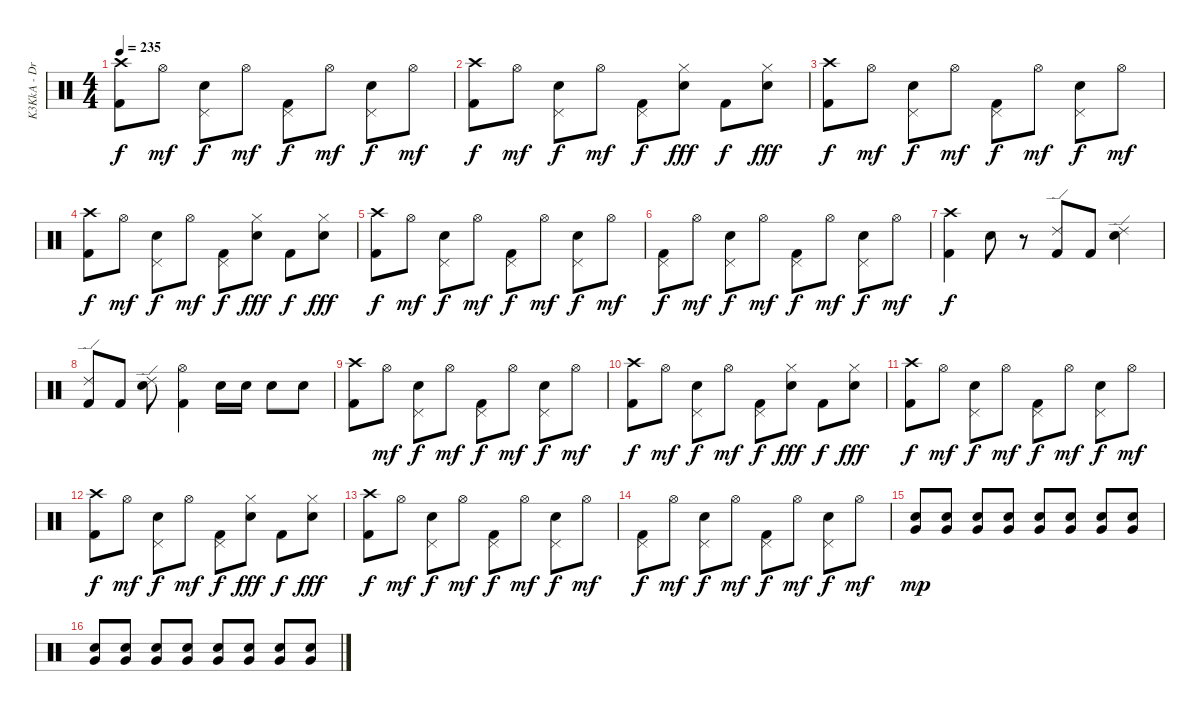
\track ("K3KkA - Drums" "K3KkA - Dr") {instrument percussion}
\staff {score}
\articulation defaults
\ts (4 4)
\tempo 235
\clef neutral
\ks c
("Crash high (hit)" "Kick (hit) 2").8{dy f} "Hi-Hat (open)".8{dy mf} ("Pedal Hi-Hat (hit)" "Snare (hit) 2").8{dy f} "Hi-Hat (open)".8{dy mf} ("Pedal Hi-Hat (hit)" "Kick (hit) 2").8{dy f} "Hi-Hat (open)".8{dy mf} ("Pedal Hi-Hat (hit)" "Snare (hit) 2").8{dy f} "Hi-Hat (open)".8{dy mf} |
("Crash high (hit)" "Kick (hit) 2").8{dy f} "Hi-Hat (open)".8{dy mf} ("Pedal Hi-Hat (hit)" "Snare (hit) 2").8{dy f} "Hi-Hat (open)".8{dy mf} ("Pedal Hi-Hat (hit)" "Kick (hit) 2").8{dy f} ("Hi-Hat (closed)" "Snare (hit) 2").8{dy fff} "Kick (hit) 2".8{dy f} ("Hi-Hat (closed)" "Snare (hit) 2").8{dy fff} |
("Crash high (hit)" "Kick (hit) 2").8{dy f} "Hi-Hat (open)".8{dy mf} ("Pedal Hi-Hat (hit)" "Snare (hit) 2").8{dy f} "Hi-Hat (open)".8{dy mf} ("Pedal Hi-Hat (hit)" "Kick (hit) 2").8{dy f} "Hi-Hat (open)".8{dy mf} ("Pedal Hi-Hat (hit)" "Snare (hit) 2").8{dy f} "Hi-Hat (open)".8{dy mf} |
("Crash high (hit)" "Kick (hit) 2").8{dy f} "Hi-Hat (open)".8{dy mf} ("Pedal Hi-Hat (hit)" "Snare (hit) 2").8{dy f} "Hi-Hat (open)".8{dy mf} ("Pedal Hi-Hat (hit)" "Kick (hit) 2").8{dy f} ("Hi-Hat (closed)" "Snare (hit) 2").8{dy fff} "Kick (hit) 2".8{dy f} ("Hi-Hat (closed)" "Snare (hit) 2").8{dy fff} |
("Crash high (hit)" "Kick (hit) 2").8{dy f} "Hi-Hat (open)".8{dy mf} ("Pedal Hi-Hat (hit)" "Snare (hit) 2").8{dy f} "Hi-Hat (open)".8{dy mf} ("Pedal Hi-Hat (hit)" "Kick (hit) 2").8{dy f} "Hi-Hat (open)".8{dy mf} ("Pedal Hi-Hat (hit)" "Snare (hit) 2").8{dy f} "Hi-Hat (open)".8{dy mf} |
("Pedal Hi-Hat (hit)" "Kick (hit) 2").8{dy f} "Hi-Hat (open)".8{dy mf} ("Pedal Hi-Hat (hit)" "Snare (hit) 2").8{dy f} "Hi-Hat (open)".8{dy mf} ("Pedal Hi-Hat (hit)" "Kick (hit) 2").8{dy f} "Hi-Hat (open)".8{dy mf} ("Pedal Hi-Hat (hit)" "Snare (hit) 2").8{dy f} "Hi-Hat (open)".8{dy mf} |
("Crash high (hit)" "Kick (hit) 2").4{dy f volume 13} "Electric Snare (hit)".8 r.8 ("Ride (edge) 2" "Kick (hit) 2").8 "Kick (hit) 2".8 ("Ride (edge) 2" "Electric Snare (hit)").4 |
("Ride (edge) 2" "Kick (hit) 2").8 "Kick (hit) 2".8 ("Ride (edge) 2" "Electric Snare (hit)").8 ("Hi-Hat (open)" "Kick (hit) 2").4 "Snare (hit) 2".16 "Snare (hit) 2".16 "Snare (hit) 2".8 "Snare (hit) 2".8 |
("Crash high (hit)" "Kick (hit) 2").8 "Hi-Hat (open)".8{dy mf} ("Pedal Hi-Hat (hit)" "Snare (hit) 2").8{dy f} "Hi-Hat (open)".8{dy mf} ("Pedal Hi-Hat (hit)" "Kick (hit) 2").8{dy f} "Hi-Hat (open)".8{dy mf} ("Pedal Hi-Hat (hit)" "Snare (hit) 2").8{dy f} "Hi-Hat (open)".8{dy mf} |
("Crash high (hit)" "Kick (hit) 2").8{dy f} "Hi-Hat (open)".8{dy mf} ("Pedal Hi-Hat (hit)" "Snare (hit) 2").8{dy f} "Hi-Hat (open)".8{dy mf} ("Pedal Hi-Hat (hit)" "Kick (hit) 2").8{dy f} ("Hi-Hat (closed)" "Snare (hit) 2").8{dy fff} "Kick (hit) 2".8{dy f} ("Hi-Hat (closed)" "Snare (hit) 2").8{dy fff} |
("Crash high (hit)" "Kick (hit) 2").8{dy f} "Hi-Hat (open)".8{dy mf} ("Pedal Hi-Hat (hit)" "Snare (hit) 2").8{dy f} "Hi-Hat (open)".8{dy mf} ("Pedal Hi-Hat (hit)" "Kick (hit) 2").8{dy f} "Hi-Hat (open)".8{dy mf} ("Pedal Hi-Hat (hit)" "Snare (hit) 2").8{dy f} "Hi-Hat (open)".8{dy mf} |
("Crash high (hit)" "Kick (hit) 2").8{dy f} "Hi-Hat (open)".8{dy mf} ("Pedal Hi-Hat (hit)" "Snare (hit) 2").8{dy f} "Hi-Hat (open)".8{dy mf} ("Pedal Hi-Hat (hit)" "Kick (hit) 2").8{dy f} ("Hi-Hat (closed)" "Snare (hit) 2").8{dy fff} "Kick (hit) 2".8{dy f} ("Hi-Hat (closed)" "Snare (hit) 2").8{dy fff} |
("Crash high (hit)" "Kick (hit) 2").8{dy f} "Hi-Hat (open)".8{dy mf} ("Pedal Hi-Hat (hit)" "Snare (hit) 2").8{dy f} "Hi-Hat (open)".8{dy mf} ("Pedal Hi-Hat (hit)" "Kick (hit) 2").8{dy f} "Hi-Hat (open)".8{dy mf} ("Pedal Hi-Hat (hit)" "Snare (hit) 2").8{dy f} "Hi-Hat (open)".8{dy mf} |
("Pedal Hi-Hat (hit)" "Kick (hit) 2").8{dy f} "Hi-Hat (open)".8{dy mf} ("Pedal Hi-Hat (hit)" "Snare (hit) 2").8{dy f} "Hi-Hat (open)".8{dy mf} ("Pedal Hi-Hat (hit)" "Kick (hit) 2").8{dy f} "Hi-Hat (open)".8{dy mf} ("Pedal Hi-Hat (hit)" "Snare (hit) 2").8{dy f} "Hi-Hat (open)".8{dy mf} |
("Very Low Tom (hit)" "Snare (hit) 2").8{dy mp} ("Very Low Tom (hit)" "Snare (hit) 2").8 ("Very Low Tom (hit)" "Snare (hit) 2").8 ("Very Low Tom (hit)" "Snare (hit) 2").8 ("Very Low Tom (hit)" "Snare (hit) 2").8 ("Very Low Tom (hit)" "Snare (hit) 2").8 ("Very Low Tom (hit)" "Snare (hit) 2").8 ("Very Low Tom (hit)" "Snare (hit) 2").8 |
("Very Low Tom (hit)" "Snare (hit) 2").8 ("Very Low Tom (hit)" "Snare (hit) 2").8 ("Very Low Tom (hit)" "Snare (hit) 2").8 ("Very Low Tom (hit)" "Snare (hit) 2").8 ("Very Low Tom (hit)" "Snare (hit) 2").8 ("Very Low Tom (hit)" "Snare (hit) 2").8 ("Very Low Tom (hit)" "Snare (hit) 2").8 ("Very Low Tom (hit)" "Snare (hit) 2").8
